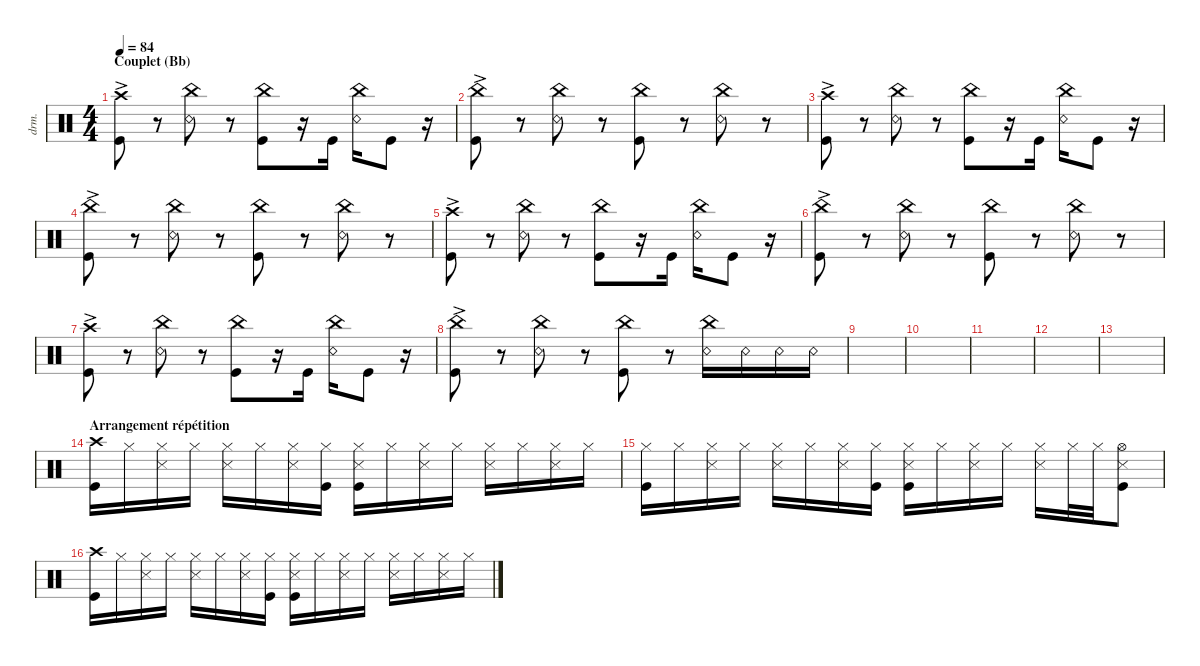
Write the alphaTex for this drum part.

\defaultSystemsLayout 4
\hideDynamics
\bracketExtendMode nobrackets
\otherSystemsTrackNameOrientation horizontal
\track ("Drumkit" "drm.") {instrument percussion}
\staff {score}
\articulation defaults
\ts (4 4)
\section ("" "Couplet (Bb)")
\tempo 84
\clef neutral
\ks aminor
("Kick (hit)" "Crash high (hit)"{ac}).8{dy mf beam Down} r.8{beam Down} ("Snare (rim shot)" "China (hit)").8{beam Down} r.8{beam Down} ("Kick (hit)" "China (hit)").8{beam Down} r.16{beam Down} "Kick (hit)".16{beam Down} ("Snare (rim shot)" "China (hit)").16{beam Down} "Kick (hit)".8{beam Down} r.16{beam Down} |
("Kick (hit)" "China (hit)"{ac}).8{beam Down} r.8{beam Down} ("Snare (rim shot)" "China (hit)").8{beam Down} r.8{beam Down} ("Kick (hit)" "China (hit)").8{beam Down} r.8{beam Down} ("China (hit)" "Snare (rim shot)").8{beam Down} r.8{beam Down} |
("Kick (hit)" "Crash high (hit)"{ac}).8{beam Down} r.8{beam Down} ("Snare (rim shot)" "China (hit)").8{beam Down} r.8{beam Down} ("Kick (hit)" "China (hit)").8{beam Down} r.16{beam Down} "Kick (hit)".16{beam Down} ("Snare (rim shot)" "China (hit)").16{beam Down} "Kick (hit)".8{beam Down} r.16{beam Down} |
("Kick (hit)" "China (hit)"{ac}).8{beam Down} r.8{beam Down} ("Snare (rim shot)" "China (hit)").8{beam Down} r.8{beam Down} ("Kick (hit)" "China (hit)").8{beam Down} r.8{beam Down} ("China (hit)" "Snare (rim shot)").8{beam Down} r.8{beam Down} |
("Kick (hit)" "Crash high (hit)"{ac}).8{beam Down} r.8{beam Down} ("Snare (rim shot)" "China (hit)").8{beam Down} r.8{beam Down} ("Kick (hit)" "China (hit)").8{beam Down} r.16{beam Down} "Kick (hit)".16{beam Down} ("Snare (rim shot)" "China (hit)").16{beam Down} "Kick (hit)".8{beam Down} r.16{beam Down} |
("Kick (hit)" "China (hit)"{ac}).8{beam Down} r.8{beam Down} ("Snare (rim shot)" "China (hit)").8{beam Down} r.8{beam Down} ("Kick (hit)" "China (hit)").8{beam Down} r.8{beam Down} ("China (hit)" "Snare (rim shot)").8{beam Down} r.8{beam Down} |
("Kick (hit)" "Crash high (hit)"{ac}).8{beam Down} r.8{beam Down} ("Snare (rim shot)" "China (hit)").8{beam Down} r.8{beam Down} ("Kick (hit)" "China (hit)").8{beam Down} r.16{beam Down} "Kick (hit)".16{beam Down} ("Snare (rim shot)" "China (hit)").16{beam Down} "Kick (hit)".8{beam Down} r.16{beam Down} |
("Kick (hit)" "China (hit)"{ac}).8{beam Down} r.8{beam Down} ("Snare (rim shot)" "China (hit)").8{beam Down} r.8{beam Down} ("Kick (hit)" "China (hit)").8{beam Down} r.8{beam Down} ("China (hit)" "Snare (rim shot)").16{beam Down} "Snare (rim shot)".16{beam Down} "Snare (rim shot)".16{beam Down} "Snare (rim shot)".16{beam Down} |
|
|
|
|
|
\section ("" "Arrangement répétition")
("Kick (hit)" "Crash high (hit)").16{dy f beam Down} "Hi-Hat (closed)".16{dy p beam Down} ("Hi-Hat (closed)" "Snare (side stick) 3").16{dy f beam Down} "Hi-Hat (closed)".16{dy mp beam Down} ("Hi-Hat (closed)" "Snare (side stick) 3").16{dy f beam Down} "Hi-Hat (closed)".16{beam Down} ("Hi-Hat (closed)" "Snare (side stick) 3").16{beam Down} ("Hi-Hat (closed)" "Kick (hit)").16{dy mp beam Down} ("Hi-Hat (closed)" "Kick (hit)" "Snare (side stick) 3").16{dy f beam Down} "Hi-Hat (closed)".16{dy mp beam Down} ("Hi-Hat (closed)" "Snare (side stick) 3").16{dy f beam Down} "Hi-Hat (closed)".16{dy mp beam Down} ("Hi-Hat (closed)" "Snare (side stick) 3").16{dy f beam Down} "Hi-Hat (closed)".16{dy mp beam Down} ("Hi-Hat (closed)" "Snare (side stick) 3").16{dy f beam Down} "Hi-Hat (closed)".16{dy mp beam Down} |
("Kick (hit)" "Hi-Hat (closed)").16{dy f beam Down} "Hi-Hat (closed)".16{dy p beam Down} ("Hi-Hat (closed)" "Snare (side stick) 3").16{dy f beam Down} "Hi-Hat (closed)".16{dy mp beam Down} ("Hi-Hat (closed)" "Snare (side stick) 3").16{dy f beam Down} "Hi-Hat (closed)".16{beam Down} ("Hi-Hat (closed)" "Snare (side stick) 3").16{beam Down} ("Hi-Hat (closed)" "Kick (hit)").16{dy mp beam Down} ("Hi-Hat (closed)" "Kick (hit)" "Snare (side stick) 3").16{dy f beam Down} "Hi-Hat (closed)".16{dy mp beam Down} ("Hi-Hat (closed)" "Snare (side stick) 3").16{dy f beam Down} "Hi-Hat (closed)".16{dy mp beam Down} ("Hi-Hat (closed)" "Snare (side stick) 3").16{dy f beam Down} "Hi-Hat (closed)".32{dy mp beam Down} "Hi-Hat (closed)".32{beam Down} ("Kick (hit)" "Hi-Hat (open)" "Snare (side stick) 3").8{dy f beam Down} |
("Kick (hit)" "Crash high (hit)").16{beam Down} "Hi-Hat (closed)".16{dy p beam Down} ("Hi-Hat (closed)" "Snare (side stick) 3").16{dy f beam Down} "Hi-Hat (closed)".16{dy mp beam Down} ("Hi-Hat (closed)" "Snare (side stick) 3").16{dy f beam Down} "Hi-Hat (closed)".16{beam Down} ("Hi-Hat (closed)" "Snare (side stick) 3").16{beam Down} ("Hi-Hat (closed)" "Kick (hit)").16{dy mp beam Down} ("Hi-Hat (closed)" "Kick (hit)" "Snare (side stick) 3").16{dy f beam Down} "Hi-Hat (closed)".16{dy mp beam Down} ("Hi-Hat (closed)" "Snare (side stick) 3").16{dy f beam Down} "Hi-Hat (closed)".16{dy mp beam Down} ("Hi-Hat (closed)" "Snare (side stick) 3").16{dy f beam Down} "Hi-Hat (closed)".16{dy mp beam Down} ("Hi-Hat (closed)" "Snare (side stick) 3").16{dy f beam Down} "Hi-Hat (closed)".16{dy mp beam Down}
